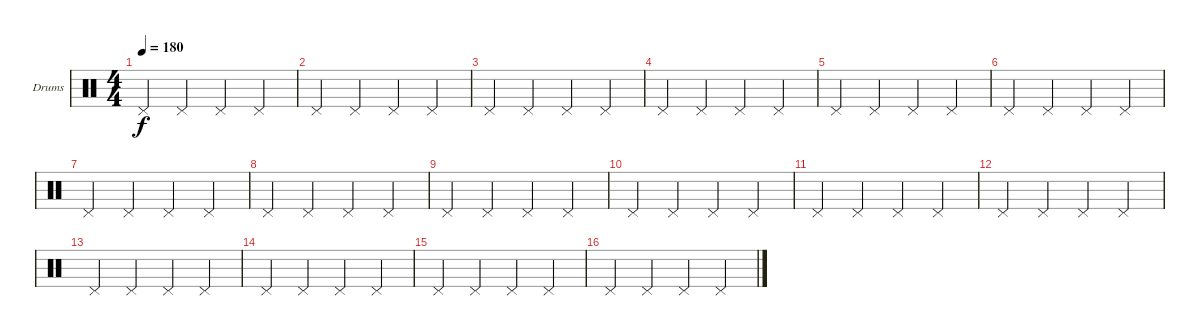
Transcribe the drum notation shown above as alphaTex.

\defaultSystemsLayout 4
\bracketExtendMode groupsimilarinstruments
\firstSystemTrackNameOrientation horizontal
\otherSystemsTrackNameOrientation horizontal
\track ("Drumkit" "Drums") {instrument percussion}
\staff {score}
\articulation defaults
\ts (4 4)
\tempo 180
\clef neutral
\ks c "Pedal Hi-Hat (hit)".4{dy f} "Pedal Hi-Hat (hit)".4 "Pedal Hi-Hat (hit)".4 "Pedal Hi-Hat (hit)".4
|
"Pedal Hi-Hat (hit)".4 "Pedal Hi-Hat (hit)".4 "Pedal Hi-Hat (hit)".4 "Pedal Hi-Hat (hit)".4 |
"Pedal Hi-Hat (hit)".4 "Pedal Hi-Hat (hit)".4 "Pedal Hi-Hat (hit)".4 "Pedal Hi-Hat (hit)".4 |
"Pedal Hi-Hat (hit)".4 "Pedal Hi-Hat (hit)".4 "Pedal Hi-Hat (hit)".4 "Pedal Hi-Hat (hit)".4 |
"Pedal Hi-Hat (hit)".4 "Pedal Hi-Hat (hit)".4 "Pedal Hi-Hat (hit)".4 "Pedal Hi-Hat (hit)".4 |
"Pedal Hi-Hat (hit)".4 "Pedal Hi-Hat (hit)".4 "Pedal Hi-Hat (hit)".4 "Pedal Hi-Hat (hit)".4 |
"Pedal Hi-Hat (hit)".4 "Pedal Hi-Hat (hit)".4 "Pedal Hi-Hat (hit)".4 "Pedal Hi-Hat (hit)".4 |
"Pedal Hi-Hat (hit)".4 "Pedal Hi-Hat (hit)".4 "Pedal Hi-Hat (hit)".4 "Pedal Hi-Hat (hit)".4 |
"Pedal Hi-Hat (hit)".4 "Pedal Hi-Hat (hit)".4 "Pedal Hi-Hat (hit)".4 "Pedal Hi-Hat (hit)".4 |
"Pedal Hi-Hat (hit)".4 "Pedal Hi-Hat (hit)".4 "Pedal Hi-Hat (hit)".4 "Pedal Hi-Hat (hit)".4 |
"Pedal Hi-Hat (hit)".4 "Pedal Hi-Hat (hit)".4 "Pedal Hi-Hat (hit)".4 "Pedal Hi-Hat (hit)".4 |
"Pedal Hi-Hat (hit)".4 "Pedal Hi-Hat (hit)".4 "Pedal Hi-Hat (hit)".4 "Pedal Hi-Hat (hit)".4 |
"Pedal Hi-Hat (hit)".4 "Pedal Hi-Hat (hit)".4 "Pedal Hi-Hat (hit)".4 "Pedal Hi-Hat (hit)".4 |
"Pedal Hi-Hat (hit)".4 "Pedal Hi-Hat (hit)".4 "Pedal Hi-Hat (hit)".4 "Pedal Hi-Hat (hit)".4 |
"Pedal Hi-Hat (hit)".4 "Pedal Hi-Hat (hit)".4 "Pedal Hi-Hat (hit)".4 "Pedal Hi-Hat (hit)".4 |
"Pedal Hi-Hat (hit)".4 "Pedal Hi-Hat (hit)".4 "Pedal Hi-Hat (hit)".4 "Pedal Hi-Hat (hit)".4
